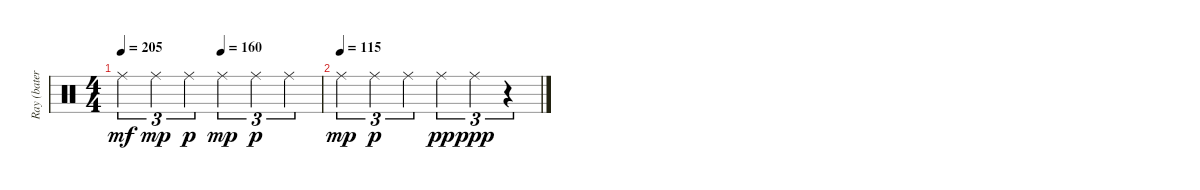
\track ("Ray (batería)" "Ray (bater") {instrument percussion}
\staff {score}
\articulation defaults
\ts (4 4)
\tempo 205
\tempo (160 0.5)
\clef neutral
\ks c "Ride (middle)".4{tu (3 2) dy mf} "Ride (middle)".4{tu (3 2) dy mp} "Ride (middle)".4{tu (3 2) dy p} "Ride (middle)".4{tu (3 2) dy mp} "Ride (middle)".4{tu (3 2) dy p} "Ride (middle)".4{tu (3 2)}
|
\tempo (115)
"Ride (middle)".4{tu (3 2) dy mp} "Ride (middle)".4{tu (3 2) dy p} "Ride (middle)".4{tu (3 2)} "Ride (middle)".4{tu (3 2) dy pp} "Ride (middle)".4{tu (3 2) dy ppp} r.4{tu (3 2)}
